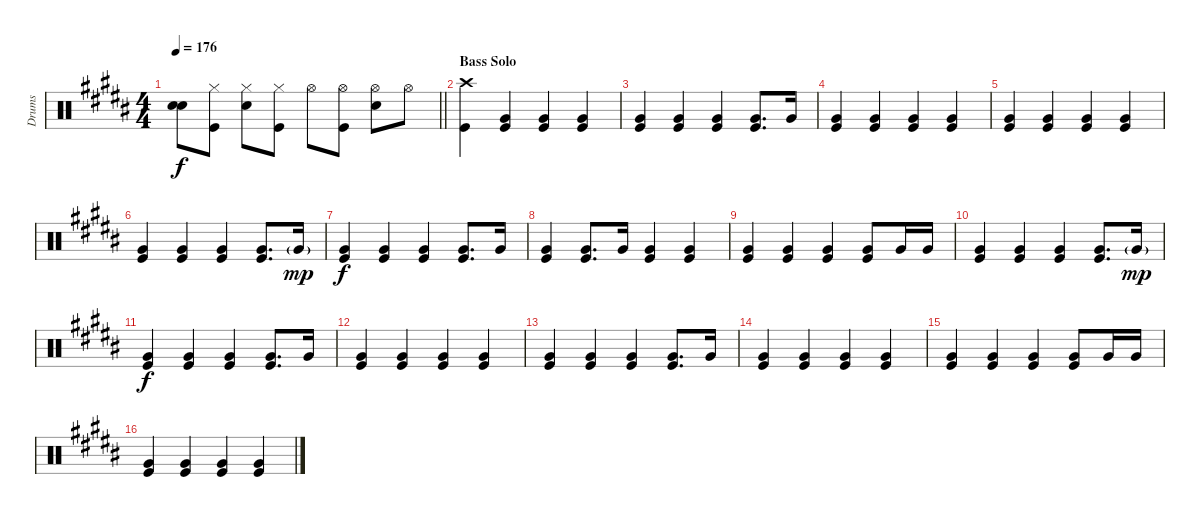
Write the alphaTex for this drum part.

\track ("Drums" "Drums") {instrument percussion}
\staff {score}
\articulation defaults
\ts (4 4)
\tempo 176
\clef neutral
\barLineRight lightlight
\ks b
("Snare (hit)"{t} "Snare (hit)"{t}).8{dy f} ("Hi-Hat (closed)" "Kick (hit)").8 ("Hi-Hat (closed)" "Snare (hit) 2").8 ("Hi-Hat (closed)" "Kick (hit)").8 "Hi-Hat (open)".8 ("Hi-Hat (open)" "Kick (hit)").8 ("Hi-Hat (open)" "Snare (hit) 2").8 "Hi-Hat (open)".8 |
\section ("" "Bass Solo")
("Kick (hit)" "Crash high (hit)").4 ("Kick (hit)" "Very Low Tom (hit)").4 ("Kick (hit)" "Very Low Tom (hit)").4 ("Kick (hit)" "Very Low Tom (hit)").4 |
("Kick (hit)" "Very Low Tom (hit)").4 ("Kick (hit)" "Very Low Tom (hit)").4 ("Kick (hit)" "Very Low Tom (hit)").4 ("Kick (hit)" "Very Low Tom (hit)").8{d} "Very Low Tom (hit)".16 |
("Very Low Tom (hit)" "Kick (hit)").4 ("Very Low Tom (hit)" "Kick (hit)").4 ("Very Low Tom (hit)" "Kick (hit)").4 ("Very Low Tom (hit)" "Kick (hit)").4 |
("Very Low Tom (hit)" "Kick (hit)").4 ("Very Low Tom (hit)" "Kick (hit)").4 ("Very Low Tom (hit)" "Kick (hit)").4 ("Very Low Tom (hit)" "Kick (hit)").4 |
("Kick (hit)" "Very Low Tom (hit)").4 ("Kick (hit)" "Very Low Tom (hit)").4 ("Kick (hit)" "Very Low Tom (hit)").4 ("Kick (hit)" "Very Low Tom (hit)").8{d} "Very Low Tom (hit)"{g}.16{dy mp} |
("Very Low Tom (hit)" "Kick (hit)").4{dy f} ("Very Low Tom (hit)" "Kick (hit)").4 ("Very Low Tom (hit)" "Kick (hit)").4 ("Very Low Tom (hit)" "Kick (hit)").8{d} "Very Low Tom (hit)".16 |
("Very Low Tom (hit)" "Kick (hit)").4 ("Very Low Tom (hit)" "Kick (hit)").8{d} "Very Low Tom (hit)".16 ("Very Low Tom (hit)" "Kick (hit)").4 ("Very Low Tom (hit)" "Kick (hit)").4 |
("Very Low Tom (hit)" "Kick (hit)").4 ("Very Low Tom (hit)" "Kick (hit)").4 ("Very Low Tom (hit)" "Kick (hit)").4 ("Very Low Tom (hit)" "Kick (hit)").8 "Very Low Tom (hit)".16 "Very Low Tom (hit)".16 |
("Kick (hit)" "Very Low Tom (hit)").4 ("Kick (hit)" "Very Low Tom (hit)").4 ("Kick (hit)" "Very Low Tom (hit)").4 ("Kick (hit)" "Very Low Tom (hit)").8{d} "Very Low Tom (hit)"{g}.16{dy mp} |
("Very Low Tom (hit)" "Kick (hit)").4{dy f} ("Very Low Tom (hit)" "Kick (hit)").4 ("Very Low Tom (hit)" "Kick (hit)").4 ("Very Low Tom (hit)" "Kick (hit)").8{d} "Very Low Tom (hit)".16 |
("Very Low Tom (hit)" "Kick (hit)").4 ("Very Low Tom (hit)" "Kick (hit)").4 ("Very Low Tom (hit)" "Kick (hit)").4 ("Very Low Tom (hit)" "Kick (hit)").4 |
("Very Low Tom (hit)" "Kick (hit)").4 ("Very Low Tom (hit)" "Kick (hit)").4 ("Very Low Tom (hit)" "Kick (hit)").4 ("Very Low Tom (hit)" "Kick (hit)").8{d} "Very Low Tom (hit)".16 |
("Very Low Tom (hit)" "Kick (hit)").4 ("Very Low Tom (hit)" "Kick (hit)").4 ("Very Low Tom (hit)" "Kick (hit)").4 ("Very Low Tom (hit)" "Kick (hit)").4 |
("Very Low Tom (hit)" "Kick (hit)").4 ("Very Low Tom (hit)" "Kick (hit)").4 ("Very Low Tom (hit)" "Kick (hit)").4 ("Very Low Tom (hit)" "Kick (hit)").8 "Very Low Tom (hit)".16 "Very Low Tom (hit)".16 |
("Very Low Tom (hit)" "Kick (hit)").4 ("Very Low Tom (hit)" "Kick (hit)").4 ("Very Low Tom (hit)" "Kick (hit)").4 ("Very Low Tom (hit)" "Kick (hit)").4
